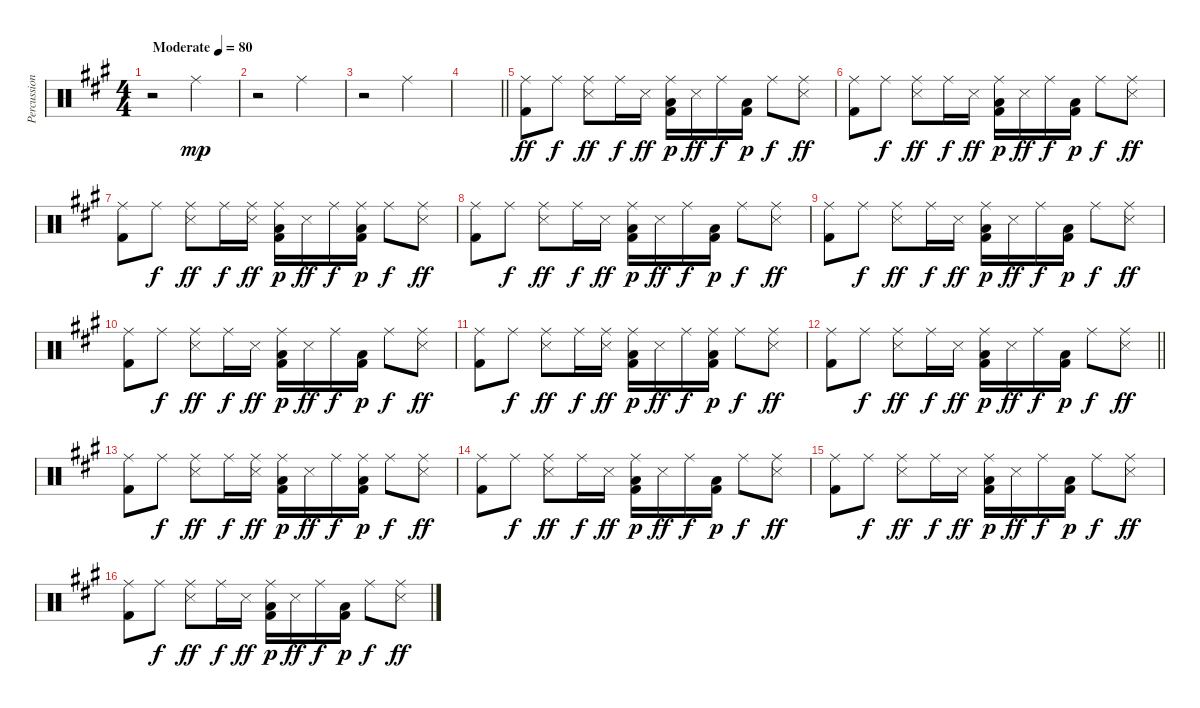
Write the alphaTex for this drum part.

\track ("Percussion" "Percussion") {instrument percussion}
\staff {score}
\articulation defaults
\ts (4 4)
\tempo (80 "Moderate")
\clef neutral
\ks a
r.2{dy mp} "Ride (middle)".2 |
r.2 "Ride (middle)".2 |
r.2 "Ride (middle)".2 |
\barLineRight lightlight
|
("Ride (middle)" "Kick (hit) 2").8{dy ff} "Ride (middle)".8{dy f} ("Ride (middle)" "Snare (side stick) 3").8{dy ff} "Ride (middle)".16{dy f} "Snare (side stick) 3".16{dy ff} ("Ride (middle)" "Kick (hit) 2" "Low Floor Tom (hit)").16{dy p} "Snare (side stick) 3".16{dy ff} "Ride (middle)".16{dy f} ("Kick (hit) 2" "Low Floor Tom (hit)").16{dy p} "Ride (middle)".8{dy f} ("Ride (middle)" "Snare (side stick) 3").8{dy ff} |
("Ride (middle)" "Kick (hit) 2").8 "Ride (middle)".8{dy f} ("Ride (middle)" "Snare (side stick) 3").8{dy ff} "Ride (middle)".16{dy f} "Snare (side stick) 3".16{dy ff} ("Ride (middle)" "Kick (hit) 2" "Low Floor Tom (hit)").16{dy p} "Snare (side stick) 3".16{dy ff} "Ride (middle)".16{dy f} ("Kick (hit) 2" "Low Floor Tom (hit)").16{dy p} "Ride (middle)".8{dy f} ("Ride (middle)" "Snare (side stick) 3").8{dy ff} |
("Ride (middle)" "Kick (hit) 2").8 "Ride (middle)".8{dy f} ("Ride (middle)" "Snare (side stick) 3").8{dy ff} "Ride (middle)".16{dy f} ("Ride (middle)" "Snare (side stick) 3").16{dy ff} ("Ride (middle)" "Kick (hit) 2" "Low Floor Tom (hit)").16{dy p} "Snare (side stick) 3".16{dy ff} "Ride (middle)".16{dy f} ("Ride (middle)" "Kick (hit) 2" "Low Floor Tom (hit)").16{dy p} "Ride (middle)".8{dy f} ("Ride (middle)" "Snare (side stick) 3").8{dy ff} |
("Ride (middle)" "Kick (hit) 2").8 "Ride (middle)".8{dy f} ("Ride (middle)" "Snare (side stick) 3").8{dy ff} "Ride (middle)".16{dy f} "Snare (side stick) 3".16{dy ff} ("Ride (middle)" "Kick (hit) 2" "Low Floor Tom (hit)").16{dy p} "Snare (side stick) 3".16{dy ff} "Ride (middle)".16{dy f} ("Kick (hit) 2" "Low Floor Tom (hit)").16{dy p} "Ride (middle)".8{dy f} ("Ride (middle)" "Snare (side stick) 3").8{dy ff} |
("Ride (middle)" "Kick (hit) 2").8 "Ride (middle)".8{dy f} ("Ride (middle)" "Snare (side stick) 3").8{dy ff} "Ride (middle)".16{dy f} "Snare (side stick) 3".16{dy ff} ("Ride (middle)" "Kick (hit) 2" "Low Floor Tom (hit)").16{dy p} "Snare (side stick) 3".16{dy ff} "Ride (middle)".16{dy f} ("Kick (hit) 2" "Low Floor Tom (hit)").16{dy p} "Ride (middle)".8{dy f} ("Ride (middle)" "Snare (side stick) 3").8{dy ff} |
("Ride (middle)" "Kick (hit) 2").8 "Ride (middle)".8{dy f} ("Ride (middle)" "Snare (side stick) 3").8{dy ff} "Ride (middle)".16{dy f} "Snare (side stick) 3".16{dy ff} ("Ride (middle)" "Kick (hit) 2" "Low Floor Tom (hit)").16{dy p} "Snare (side stick) 3".16{dy ff} "Ride (middle)".16{dy f} ("Kick (hit) 2" "Low Floor Tom (hit)").16{dy p} "Ride (middle)".8{dy f} ("Ride (middle)" "Snare (side stick) 3").8{dy ff} |
("Ride (middle)" "Kick (hit) 2").8 "Ride (middle)".8{dy f} ("Ride (middle)" "Snare (side stick) 3").8{dy ff} "Ride (middle)".16{dy f} ("Ride (middle)" "Snare (side stick) 3").16{dy ff} ("Ride (middle)" "Kick (hit) 2" "Low Floor Tom (hit)").16{dy p} "Snare (side stick) 3".16{dy ff} "Ride (middle)".16{dy f} ("Ride (middle)" "Kick (hit) 2" "Low Floor Tom (hit)").16{dy p} "Ride (middle)".8{dy f} ("Ride (middle)" "Snare (side stick) 3").8{dy ff} |
\barLineRight lightlight
("Ride (middle)" "Kick (hit) 2").8 "Ride (middle)".8{dy f} ("Ride (middle)" "Snare (side stick) 3").8{dy ff} "Ride (middle)".16{dy f} "Snare (side stick) 3".16{dy ff} ("Ride (middle)" "Kick (hit) 2" "Low Floor Tom (hit)").16{dy p} "Snare (side stick) 3".16{dy ff} "Ride (middle)".16{dy f} ("Kick (hit) 2" "Low Floor Tom (hit)").16{dy p} "Ride (middle)".8{dy f} ("Ride (middle)" "Snare (side stick) 3").8{dy ff} |
("Ride (middle)" "Kick (hit) 2").8 "Ride (middle)".8{dy f} ("Ride (middle)" "Snare (side stick) 3").8{dy ff} "Ride (middle)".16{dy f} ("Ride (middle)" "Snare (side stick) 3").16{dy ff} ("Ride (middle)" "Kick (hit) 2" "Low Floor Tom (hit)").16{dy p} "Snare (side stick) 3".16{dy ff} "Ride (middle)".16{dy f} ("Ride (middle)" "Kick (hit) 2" "Low Floor Tom (hit)").16{dy p} "Ride (middle)".8{dy f} ("Ride (middle)" "Snare (side stick) 3").8{dy ff} |
("Ride (middle)" "Kick (hit) 2").8 "Ride (middle)".8{dy f} ("Ride (middle)" "Snare (side stick) 3").8{dy ff} "Ride (middle)".16{dy f} "Snare (side stick) 3".16{dy ff} ("Ride (middle)" "Kick (hit) 2" "Low Floor Tom (hit)").16{dy p} "Snare (side stick) 3".16{dy ff} "Ride (middle)".16{dy f} ("Kick (hit) 2" "Low Floor Tom (hit)").16{dy p} "Ride (middle)".8{dy f} ("Ride (middle)" "Snare (side stick) 3").8{dy ff} |
("Ride (middle)" "Kick (hit) 2").8 "Ride (middle)".8{dy f} ("Ride (middle)" "Snare (side stick) 3").8{dy ff} "Ride (middle)".16{dy f} "Snare (side stick) 3".16{dy ff} ("Ride (middle)" "Kick (hit) 2" "Low Floor Tom (hit)").16{dy p} "Snare (side stick) 3".16{dy ff} "Ride (middle)".16{dy f} ("Kick (hit) 2" "Low Floor Tom (hit)").16{dy p} "Ride (middle)".8{dy f} ("Ride (middle)" "Snare (side stick) 3").8{dy ff} |
("Ride (middle)" "Kick (hit) 2").8 "Ride (middle)".8{dy f} ("Ride (middle)" "Snare (side stick) 3").8{dy ff} "Ride (middle)".16{dy f} "Snare (side stick) 3".16{dy ff} ("Ride (middle)" "Kick (hit) 2" "Low Floor Tom (hit)").16{dy p} "Snare (side stick) 3".16{dy ff} "Ride (middle)".16{dy f} ("Kick (hit) 2" "Low Floor Tom (hit)").16{dy p} "Ride (middle)".8{dy f} ("Ride (middle)" "Snare (side stick) 3").8{dy ff}
